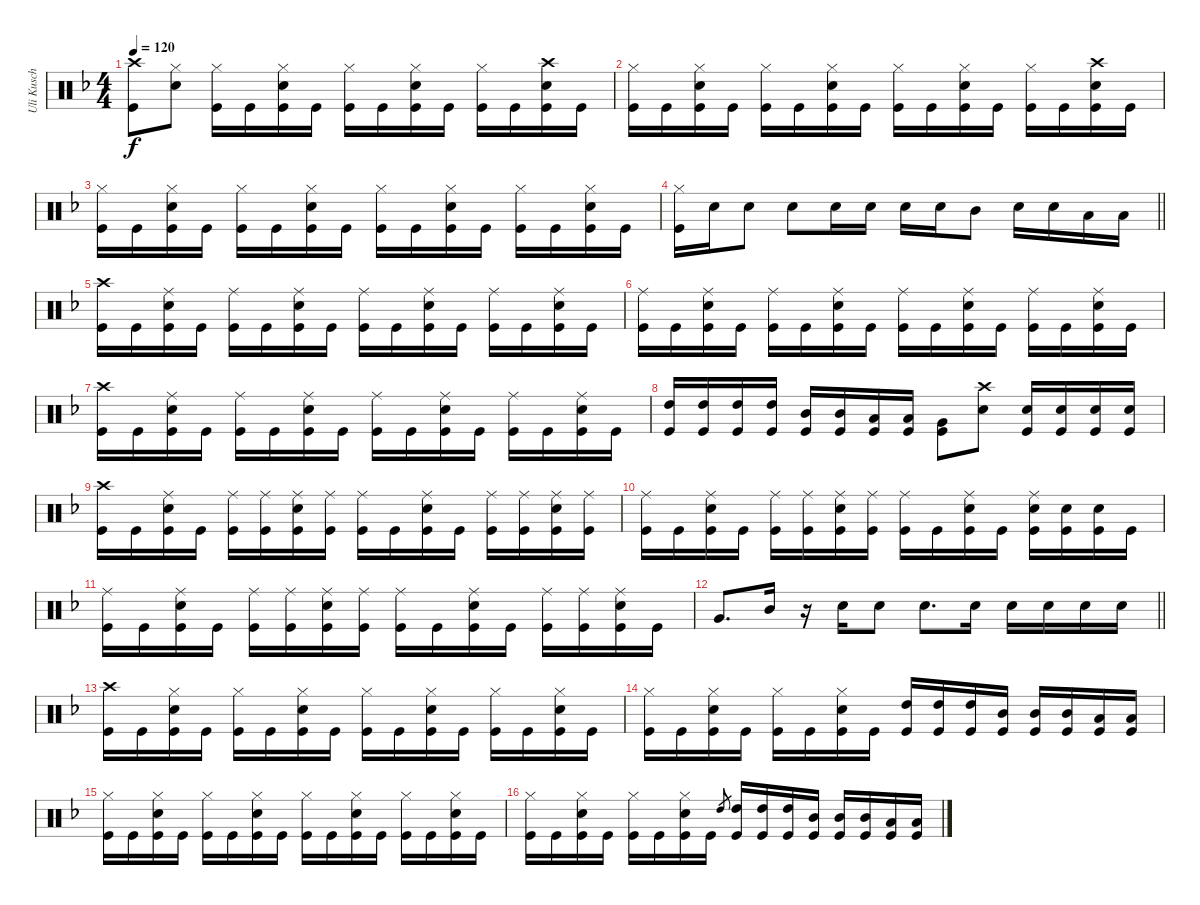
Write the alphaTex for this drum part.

\track ("Uli Kusch" "Uli Kusch") {instrument percussion}
\staff {score}
\articulation defaults
\ts (4 4)
\tempo 120
\clef neutral
\ks dminor
("Crash high (hit)" "Kick (hit)").8{dy f} ("Hi-Hat (closed)" "Snare (hit) 2").8 ("Hi-Hat (closed)" "Kick (hit)").16 "Kick (hit)".16 ("Hi-Hat (closed)" "Snare (hit) 2" "Kick (hit)").16 "Kick (hit)".16 ("Hi-Hat (closed)" "Kick (hit)").16 "Kick (hit)".16 ("Hi-Hat (closed)" "Snare (hit) 2" "Kick (hit)").16 "Kick (hit)".16 ("Hi-Hat (closed)" "Kick (hit)").16 "Kick (hit)".16 ("Crash high (hit)" "Snare (hit) 2" "Kick (hit)").16 "Kick (hit)".16 |
("Hi-Hat (closed)" "Kick (hit)").16 "Kick (hit)".16 ("Hi-Hat (closed)" "Snare (hit) 2" "Kick (hit)").16 "Kick (hit)".16 ("Hi-Hat (closed)" "Kick (hit)").16 "Kick (hit)".16 ("Hi-Hat (closed)" "Snare (hit) 2" "Kick (hit)").16 "Kick (hit)".16 ("Hi-Hat (closed)" "Kick (hit)").16 "Kick (hit)".16 ("Hi-Hat (closed)" "Snare (hit) 2" "Kick (hit)").16 "Kick (hit)".16 ("Hi-Hat (closed)" "Kick (hit)").16 "Kick (hit)".16 ("Crash high (hit)" "Snare (hit) 2" "Kick (hit)").16 "Kick (hit)".16 |
("Hi-Hat (closed)" "Kick (hit)").16 "Kick (hit)".16 ("Hi-Hat (closed)" "Snare (hit) 2" "Kick (hit)").16 "Kick (hit)".16 ("Hi-Hat (closed)" "Kick (hit)").16 "Kick (hit)".16 ("Hi-Hat (closed)" "Snare (hit) 2" "Kick (hit)").16 "Kick (hit)".16 ("Hi-Hat (closed)" "Kick (hit)").16 "Kick (hit)".16 ("Hi-Hat (closed)" "Snare (hit) 2" "Kick (hit)").16 "Kick (hit)".16 ("Hi-Hat (closed)" "Kick (hit)").16 "Kick (hit)".16 ("Hi-Hat (closed)" "Snare (hit) 2" "Kick (hit)").16 "Kick (hit)".16 |
\barLineRight lightlight
("Hi-Hat (closed)" "Kick (hit)").16 "Snare (hit) 2".16 "Snare (hit) 2".8 "Snare (hit) 2".8 "Snare (hit) 2".16 "Snare (hit) 2".16 "Snare (hit) 2".16 "Snare (hit) 2".16 "Mid Tom (hit)".8 "Snare (hit) 2".16 "Snare (hit) 2".16 "Low Tom (hit)".16 "Low Tom (hit)".16 |
("Crash high (hit)" "Kick (hit)").16 "Kick (hit)".16 ("Ride (middle)" "Snare (hit) 2" "Kick (hit)").16 "Kick (hit)".16 ("Ride (middle)" "Kick (hit)").16 "Kick (hit)".16 ("Ride (middle)" "Snare (hit) 2" "Kick (hit)").16 "Kick (hit)".16 ("Ride (middle)" "Kick (hit)").16 "Kick (hit)".16 ("Ride (middle)" "Snare (hit) 2" "Kick (hit)").16 "Kick (hit)".16 ("Ride (middle)" "Kick (hit)").16 "Kick (hit)".16 ("Ride (middle)" "Snare (hit) 2" "Kick (hit)").16 "Kick (hit)".16 |
("Ride (middle)" "Kick (hit)").16 "Kick (hit)".16 ("Ride (middle)" "Snare (hit) 2" "Kick (hit)").16 "Kick (hit)".16 ("Ride (middle)" "Kick (hit)").16 "Kick (hit)".16 ("Ride (middle)" "Snare (hit) 2" "Kick (hit)").16 "Kick (hit)".16 ("Ride (middle)" "Kick (hit)").16 "Kick (hit)".16 ("Ride (middle)" "Snare (hit) 2" "Kick (hit)").16 "Kick (hit)".16 ("Ride (middle)" "Kick (hit)").16 "Kick (hit)".16 ("Ride (middle)" "Snare (hit) 2" "Kick (hit)").16 "Kick (hit)".16 |
("Crash high (hit)" "Kick (hit)").16 "Kick (hit)".16 ("Ride (middle)" "Snare (hit) 2" "Kick (hit)").16 "Kick (hit)".16 ("Ride (middle)" "Kick (hit)").16 "Kick (hit)".16 ("Ride (middle)" "Snare (hit) 2" "Kick (hit)").16 "Kick (hit)".16 ("Ride (middle)" "Kick (hit)").16 "Kick (hit)".16 ("Ride (middle)" "Snare (hit) 2" "Kick (hit)").16 "Kick (hit)".16 ("Ride (middle)" "Kick (hit)").16 "Kick (hit)".16 ("Ride (middle)" "Snare (hit) 2" "Kick (hit)").16 "Kick (hit)".16 |
("High Tom (hit)" "Kick (hit)").16 ("High Tom (hit)" "Kick (hit)").16 ("High Tom (hit)" "Kick (hit)").16 ("High Tom (hit)" "Kick (hit)").16 ("Mid Tom (hit)" "Kick (hit)").16 ("Mid Tom (hit)" "Kick (hit)").16 ("Low Tom (hit)" "Kick (hit)").16 ("Low Tom (hit)" "Kick (hit)").16 ("Very Low Tom (hit)" "Kick (hit)").8 ("Crash high (hit)" "Snare (hit) 2").8 ("Snare (hit) 2" "Kick (hit)").16 ("Snare (hit) 2" "Kick (hit)").16 ("Snare (hit) 2" "Kick (hit)").16 ("Snare (hit) 2" "Kick (hit)").16 |
("Crash high (hit)" "Kick (hit)").16 "Kick (hit)".16 ("Ride (middle)" "Snare (hit) 2" "Kick (hit)").16 "Kick (hit)".16 ("Ride (middle)" "Kick (hit)").16 ("Ride (middle)" "Kick (hit)").16 ("Ride (middle)" "Snare (hit) 2" "Kick (hit)").16 ("Ride (middle)" "Kick (hit)").16 ("Ride (middle)" "Kick (hit)").16 "Kick (hit)".16 ("Ride (middle)" "Snare (hit) 2" "Kick (hit)").16 "Kick (hit)".16 ("Ride (middle)" "Kick (hit)").16 ("Ride (middle)" "Kick (hit)").16 ("Ride (middle)" "Snare (hit) 2" "Kick (hit)").16 ("Ride (middle)" "Kick (hit)").16 |
("Ride (middle)" "Kick (hit)").16 "Kick (hit)".16 ("Ride (middle)" "Snare (hit) 2" "Kick (hit)").16 "Kick (hit)".16 ("Ride (middle)" "Kick (hit)").16 ("Ride (middle)" "Kick (hit)").16 ("Ride (middle)" "Snare (hit) 2" "Kick (hit)").16 ("Ride (middle)" "Kick (hit)").16 ("Ride (middle)" "Kick (hit)").16 "Kick (hit)".16 ("Ride (middle)" "Snare (hit) 2" "Kick (hit)").16 "Kick (hit)".16 ("Ride (middle)" "Snare (hit) 2" "Kick (hit)").16 ("Snare (hit) 2" "Kick (hit)").16 ("Snare (hit) 2" "Kick (hit)").16 "Kick (hit)".16 |
("Ride (middle)" "Kick (hit)").16 "Kick (hit)".16 ("Ride (middle)" "Snare (hit) 2" "Kick (hit)").16 "Kick (hit)".16 ("Ride (middle)" "Kick (hit)").16 ("Ride (middle)" "Kick (hit)").16 ("Ride (middle)" "Snare (hit) 2" "Kick (hit)").16 ("Ride (middle)" "Kick (hit)").16 ("Ride (middle)" "Kick (hit)").16 "Kick (hit)".16 ("Ride (middle)" "Snare (hit) 2" "Kick (hit)").16 "Kick (hit)".16 ("Ride (middle)" "Kick (hit)").16 ("Ride (middle)" "Kick (hit)").16 ("Ride (middle)" "Snare (hit) 2" "Kick (hit)").16 "Kick (hit)".16 |
\barLineRight lightlight "Very Low Tom (hit)".8{d} "Mid Tom (hit)".16
r.16 "Snare (hit) 2".16 "Snare (hit) 2".8 "Snare (hit) 2".8{d} "Snare (hit)".16 "Snare (hit) 2".16 "Snare (hit) 2".16 "Snare (hit) 2".16 "Snare (hit) 2".16 |
("Crash high (hit)" "Kick (hit)").16 "Kick (hit)".16 ("Hi-Hat (closed)" "Snare (hit) 2" "Kick (hit)").16 "Kick (hit)".16 ("Hi-Hat (closed)" "Kick (hit)").16 "Kick (hit)".16 ("Hi-Hat (closed)" "Snare (hit) 2" "Kick (hit)").16 "Kick (hit)".16 ("Hi-Hat (closed)" "Kick (hit)").16 "Kick (hit)".16 ("Hi-Hat (closed)" "Snare (hit) 2" "Kick (hit)").16 "Kick (hit)".16 ("Hi-Hat (closed)" "Kick (hit)").16 "Kick (hit)".16 ("Hi-Hat (closed)" "Snare (hit) 2" "Kick (hit)").16 "Kick (hit)".16 |
("Hi-Hat (closed)" "Kick (hit)").16 "Kick (hit)".16 ("Hi-Hat (closed)" "Snare (hit) 2" "Kick (hit)").16 "Kick (hit)".16 ("Hi-Hat (closed)" "Kick (hit)").16 "Kick (hit)".16 ("Hi-Hat (closed)" "Snare (hit) 2" "Kick (hit)").16 "Kick (hit)".16 ("High Tom (hit)" "Kick (hit)").16 ("High Tom (hit)" "Kick (hit)").16 ("High Tom (hit)" "Kick (hit)").16 ("Mid Tom (hit)" "Kick (hit)").16 ("Mid Tom (hit)" "Kick (hit)").16 ("Mid Tom (hit)" "Kick (hit)").16 ("Low Tom (hit)" "Kick (hit)").16 ("Low Tom (hit)" "Kick (hit)").16 |
("Hi-Hat (closed)" "Kick (hit)").16 "Kick (hit)".16 ("Hi-Hat (closed)" "Snare (hit) 2" "Kick (hit)").16 "Kick (hit)".16 ("Hi-Hat (closed)" "Kick (hit)").16 "Kick (hit)".16 ("Hi-Hat (closed)" "Snare (hit) 2" "Kick (hit)").16 "Kick (hit)".16 ("Hi-Hat (closed)" "Kick (hit)").16 "Kick (hit)".16 ("Hi-Hat (closed)" "Snare (hit) 2" "Kick (hit)").16 "Kick (hit)".16 ("Hi-Hat (closed)" "Kick (hit)").16 "Kick (hit)".16 ("Hi-Hat (closed)" "Snare (hit) 2" "Kick (hit)").16 "Kick (hit)".16 |
("Hi-Hat (closed)" "Kick (hit)").16 "Kick (hit)".16 ("Hi-Hat (closed)" "Snare (hit) 2" "Kick (hit)").16 "Kick (hit)".16 ("Hi-Hat (closed)" "Kick (hit)").16 "Kick (hit)".16 ("Hi-Hat (closed)" "Snare (hit) 2" "Kick (hit)").16 "Kick (hit)".16 "High Tom (hit)".8{gr} ("High Tom (hit)" "Kick (hit)").16 ("High Tom (hit)" "Kick (hit)").16 ("High Tom (hit)" "Kick (hit)").16 ("Mid Tom (hit)" "Kick (hit)").16 ("Mid Tom (hit)" "Kick (hit)").16 ("Mid Tom (hit)" "Kick (hit)").16 ("Low Tom (hit)" "Kick (hit)").16 ("Low Tom (hit)" "Kick (hit)").16
